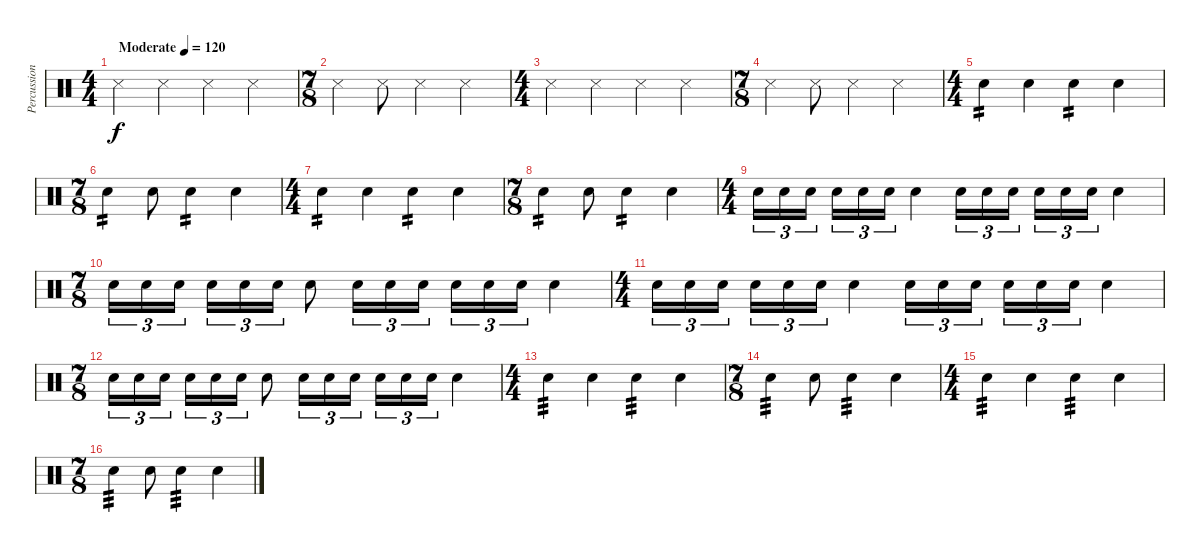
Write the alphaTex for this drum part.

\track ("Percussion" "Percussion") {instrument percussion}
\staff {score}
\articulation defaults
\ts (4 4)
\tempo (120 "Moderate")
\clef neutral
\ks c "Snare (side stick) 3".4{dy f} "Snare (side stick) 3".4 "Snare (side stick) 3".4 "Snare (side stick) 3".4
|
\ts (7 8)
"Snare (side stick) 3".4 "Snare (side stick) 3".8 "Snare (side stick) 3".4 "Snare (side stick) 3".4 |
\ts (4 4)
"Snare (side stick) 3".4 "Snare (side stick) 3".4 "Snare (side stick) 3".4 "Snare (side stick) 3".4 |
\ts (7 8)
"Snare (side stick) 3".4 "Snare (side stick) 3".8 "Snare (side stick) 3".4 "Snare (side stick) 3".4 |
\ts (4 4)
"Snare (hit) 2".4{tp 2} "Snare (hit) 2".4 "Snare (hit) 2".4{tp 2} "Snare (hit) 2".4 |
\ts (7 8)
"Snare (hit) 2".4{tp 2} "Snare (hit) 2".8 "Snare (hit) 2".4{tp 2} "Snare (hit) 2".4 |
\ts (4 4)
"Snare (hit) 2".4{tp 2} "Snare (hit) 2".4 "Snare (hit) 2".4{tp 2} "Snare (hit) 2".4 |
\ts (7 8)
"Snare (hit) 2".4{tp 2} "Snare (hit) 2".8 "Snare (hit) 2".4{tp 2} "Snare (hit) 2".4 |
\ts (4 4)
"Snare (hit) 2".16{tu (3 2)} "Snare (hit) 2".16{tu (3 2)} "Snare (hit) 2".16{tu (3 2) beam splitsecondary} "Snare (hit) 2".16{tu (3 2)} "Snare (hit) 2".16{tu (3 2)} "Snare (hit) 2".16{tu (3 2)} "Snare (hit) 2".4 "Snare (hit) 2".16{tu (3 2)} "Snare (hit) 2".16{tu (3 2)} "Snare (hit) 2".16{tu (3 2) beam splitsecondary} "Snare (hit) 2".16{tu (3 2)} "Snare (hit) 2".16{tu (3 2)} "Snare (hit) 2".16{tu (3 2)} "Snare (hit) 2".4 |
\ts (7 8)
"Snare (hit) 2".16{tu (3 2)} "Snare (hit) 2".16{tu (3 2)} "Snare (hit) 2".16{tu (3 2)} "Snare (hit) 2".16{tu (3 2)} "Snare (hit) 2".16{tu (3 2)} "Snare (hit) 2".16{tu (3 2)} "Snare (hit) 2".8 "Snare (hit) 2".16{tu (3 2)} "Snare (hit) 2".16{tu (3 2)} "Snare (hit) 2".16{tu (3 2)} "Snare (hit) 2".16{tu (3 2)} "Snare (hit) 2".16{tu (3 2)} "Snare (hit) 2".16{tu (3 2)} "Snare (hit) 2".4 |
\ts (4 4)
"Snare (hit) 2".16{tu (3 2)} "Snare (hit) 2".16{tu (3 2)} "Snare (hit) 2".16{tu (3 2) beam splitsecondary} "Snare (hit) 2".16{tu (3 2)} "Snare (hit) 2".16{tu (3 2)} "Snare (hit) 2".16{tu (3 2)} "Snare (hit) 2".4 "Snare (hit) 2".16{tu (3 2)} "Snare (hit) 2".16{tu (3 2)} "Snare (hit) 2".16{tu (3 2) beam splitsecondary} "Snare (hit) 2".16{tu (3 2)} "Snare (hit) 2".16{tu (3 2)} "Snare (hit) 2".16{tu (3 2)} "Snare (hit) 2".4 |
\ts (7 8)
"Snare (hit) 2".16{tu (3 2)} "Snare (hit) 2".16{tu (3 2)} "Snare (hit) 2".16{tu (3 2)} "Snare (hit) 2".16{tu (3 2)} "Snare (hit) 2".16{tu (3 2)} "Snare (hit) 2".16{tu (3 2)} "Snare (hit) 2".8 "Snare (hit) 2".16{tu (3 2)} "Snare (hit) 2".16{tu (3 2)} "Snare (hit) 2".16{tu (3 2)} "Snare (hit) 2".16{tu (3 2)} "Snare (hit) 2".16{tu (3 2)} "Snare (hit) 2".16{tu (3 2)} "Snare (hit) 2".4 |
\ts (4 4)
"Snare (hit) 2".4{tp 3} "Snare (hit) 2".4 "Snare (hit) 2".4{tp 3} "Snare (hit) 2".4 |
\ts (7 8)
"Snare (hit) 2".4{tp 3} "Snare (hit) 2".8 "Snare (hit) 2".4{tp 3} "Snare (hit) 2".4 |
\ts (4 4)
"Snare (hit) 2".4{tp 3} "Snare (hit) 2".4 "Snare (hit) 2".4{tp 3} "Snare (hit) 2".4 |
\ts (7 8)
"Snare (hit) 2".4{tp 3} "Snare (hit) 2".8 "Snare (hit) 2".4{tp 3} "Snare (hit) 2".4
